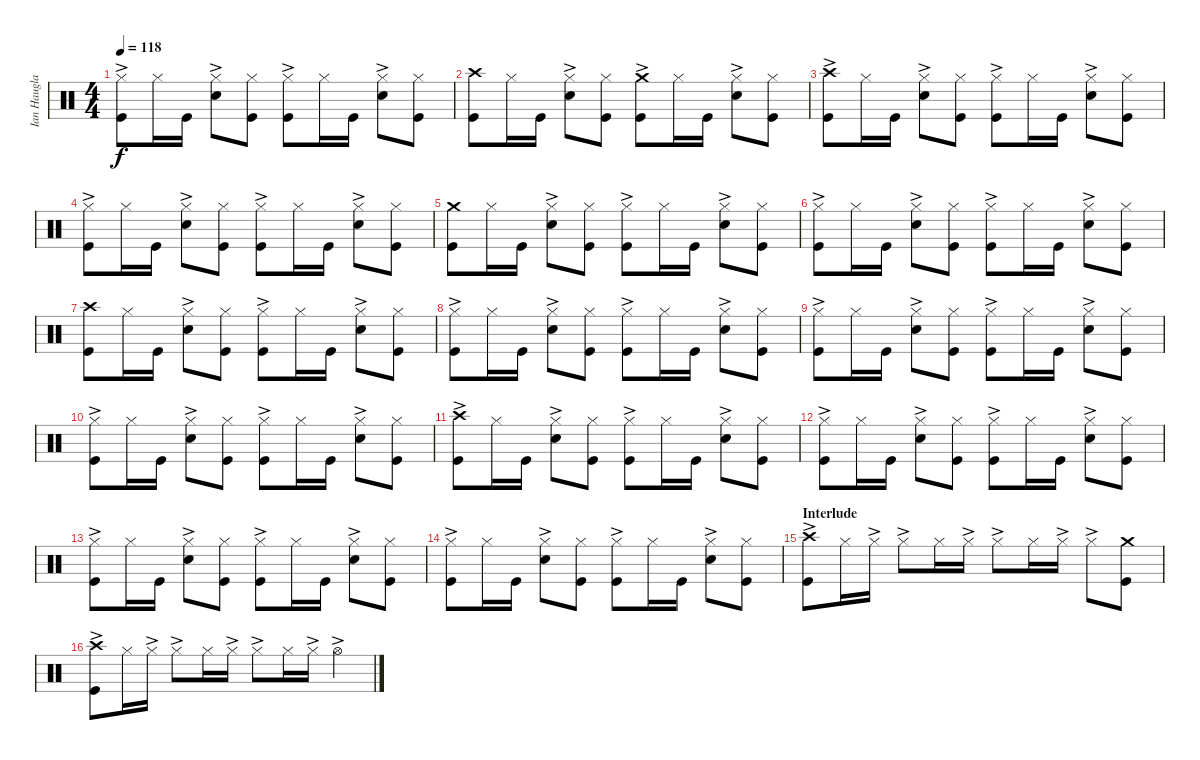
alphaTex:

\track ("Ian Haugland - Tama Imperialstar Kit - " "Ian Haugla") {instrument percussion}
\staff {score}
\articulation defaults
\ts (4 4)
\tempo 118
\clef neutral
\ks c
("Hi-Hat (closed)"{ac} "Kick (hit)").8{dy f} "Hi-Hat (closed)".16 "Kick (hit)".16 ("Hi-Hat (closed)"{ac} "Snare (hit) 2").8 ("Hi-Hat (closed)" "Kick (hit)").8 ("Hi-Hat (closed)"{ac} "Kick (hit)").8 "Hi-Hat (closed)".16 "Kick (hit)".16 ("Hi-Hat (closed)"{ac} "Snare (hit) 2").8 ("Hi-Hat (closed)" "Kick (hit)").8 |
("Crash high (hit)" "Kick (hit)").8 "Hi-Hat (closed)".16 "Kick (hit)".16 ("Hi-Hat (closed)"{ac} "Snare (hit) 2").8 ("Hi-Hat (closed)" "Kick (hit)").8 ("Crash medium (hit)"{ac} "Kick (hit)").8 "Hi-Hat (closed)".16 "Kick (hit)".16 ("Hi-Hat (closed)"{ac} "Snare (hit) 2").8 ("Hi-Hat (closed)" "Kick (hit)").8 |
("Crash high (hit)"{ac} "Kick (hit)").8 "Hi-Hat (closed)".16 "Kick (hit)".16 ("Hi-Hat (closed)"{ac} "Snare (hit) 2").8 ("Hi-Hat (closed)" "Kick (hit)").8 ("Hi-Hat (closed)"{ac} "Kick (hit)").8 "Hi-Hat (closed)".16 "Kick (hit)".16 ("Hi-Hat (closed)"{ac} "Snare (hit) 2").8 ("Hi-Hat (closed)" "Kick (hit)").8 |
("Hi-Hat (closed)"{ac} "Kick (hit)").8 "Hi-Hat (closed)".16 "Kick (hit)".16 ("Hi-Hat (closed)"{ac} "Snare (hit) 2").8 ("Hi-Hat (closed)" "Kick (hit)").8 ("Hi-Hat (closed)"{ac} "Kick (hit)").8 "Hi-Hat (closed)".16 "Kick (hit)".16 ("Hi-Hat (closed)"{ac} "Snare (hit) 2").8 ("Hi-Hat (closed)" "Kick (hit)").8 |
("Crash medium (hit)" "Kick (hit)").8 "Hi-Hat (closed)".16 "Kick (hit)".16 ("Hi-Hat (closed)"{ac} "Snare (hit) 2").8 ("Hi-Hat (closed)" "Kick (hit)").8 ("Hi-Hat (closed)"{ac} "Kick (hit)").8 "Hi-Hat (closed)".16 "Kick (hit)".16 ("Hi-Hat (closed)"{ac} "Snare (hit) 2").8 ("Hi-Hat (closed)" "Kick (hit)").8 |
("Hi-Hat (closed)"{ac} "Kick (hit)").8 "Hi-Hat (closed)".16 "Kick (hit)".16 ("Hi-Hat (closed)"{ac} "Snare (hit) 2").8 ("Hi-Hat (closed)" "Kick (hit)").8 ("Hi-Hat (closed)"{ac} "Kick (hit)").8 "Hi-Hat (closed)".16 "Kick (hit)".16 ("Hi-Hat (closed)"{ac} "Snare (hit) 2").8 ("Hi-Hat (closed)" "Kick (hit)").8 |
("Crash high (hit)" "Kick (hit)").8 "Hi-Hat (closed)".16 "Kick (hit)".16 ("Hi-Hat (closed)"{ac} "Snare (hit) 2").8 ("Hi-Hat (closed)" "Kick (hit)").8 ("Hi-Hat (closed)"{ac} "Kick (hit)").8 "Hi-Hat (closed)".16 "Kick (hit)".16 ("Hi-Hat (closed)"{ac} "Snare (hit) 2").8 ("Hi-Hat (closed)" "Kick (hit)").8 |
("Hi-Hat (closed)"{ac} "Kick (hit)").8 "Hi-Hat (closed)".16 "Kick (hit)".16 ("Hi-Hat (closed)"{ac} "Snare (hit) 2").8 ("Hi-Hat (closed)" "Kick (hit)").8 ("Hi-Hat (closed)"{ac} "Kick (hit)").8 "Hi-Hat (closed)".16 "Kick (hit)".16 ("Hi-Hat (closed)"{ac} "Snare (hit) 2").8 ("Hi-Hat (closed)" "Kick (hit)").8 |
("Hi-Hat (closed)"{ac} "Kick (hit)").8 "Hi-Hat (closed)".16 "Kick (hit)".16 ("Hi-Hat (closed)"{ac} "Snare (hit) 2").8 ("Hi-Hat (closed)" "Kick (hit)").8 ("Hi-Hat (closed)"{ac} "Kick (hit)").8 "Hi-Hat (closed)".16 "Kick (hit)".16 ("Hi-Hat (closed)"{ac} "Snare (hit) 2").8 ("Hi-Hat (closed)" "Kick (hit)").8 |
("Hi-Hat (closed)"{ac} "Kick (hit)").8 "Hi-Hat (closed)".16 "Kick (hit)".16 ("Hi-Hat (closed)"{ac} "Snare (hit) 2").8 ("Hi-Hat (closed)" "Kick (hit)").8 ("Hi-Hat (closed)"{ac} "Kick (hit)").8 "Hi-Hat (closed)".16 "Kick (hit)".16 ("Hi-Hat (closed)"{ac} "Snare (hit) 2").8 ("Hi-Hat (closed)" "Kick (hit)").8 |
("Crash high (hit)"{ac} "Kick (hit)").8 "Hi-Hat (closed)".16 "Kick (hit)".16 ("Hi-Hat (closed)"{ac} "Snare (hit) 2").8 ("Hi-Hat (closed)" "Kick (hit)").8 ("Hi-Hat (closed)"{ac} "Kick (hit)").8 "Hi-Hat (closed)".16 "Kick (hit)".16 ("Hi-Hat (closed)"{ac} "Snare (hit) 2").8 ("Hi-Hat (closed)" "Kick (hit)").8 |
("Hi-Hat (closed)"{ac} "Kick (hit)").8 "Hi-Hat (closed)".16 "Kick (hit)".16 ("Hi-Hat (closed)"{ac} "Snare (hit) 2").8 ("Hi-Hat (closed)" "Kick (hit)").8 ("Hi-Hat (closed)"{ac} "Kick (hit)").8 "Hi-Hat (closed)".16 "Kick (hit)".16 ("Hi-Hat (closed)"{ac} "Snare (hit) 2").8 ("Hi-Hat (closed)" "Kick (hit)").8 |
("Hi-Hat (closed)"{ac} "Kick (hit)").8 "Hi-Hat (closed)".16 "Kick (hit)".16 ("Hi-Hat (closed)"{ac} "Snare (hit) 2").8 ("Hi-Hat (closed)" "Kick (hit)").8 ("Hi-Hat (closed)"{ac} "Kick (hit)").8 "Hi-Hat (closed)".16 "Kick (hit)".16 ("Hi-Hat (closed)"{ac} "Snare (hit) 2").8 ("Hi-Hat (closed)" "Kick (hit)").8 |
("Hi-Hat (closed)"{ac} "Kick (hit)").8 "Hi-Hat (closed)".16 "Kick (hit)".16 ("Hi-Hat (closed)"{ac} "Snare (hit) 2").8 ("Hi-Hat (closed)" "Kick (hit)").8 ("Hi-Hat (closed)"{ac} "Kick (hit)").8 "Hi-Hat (closed)".16 "Kick (hit)".16 ("Hi-Hat (closed)"{ac} "Snare (hit) 2").8 ("Hi-Hat (closed)" "Kick (hit)").8 |
\section ("" "Interlude")
("Crash high (hit)"{ac} "Kick (hit)").8 "Hi-Hat (closed)".16 "Hi-Hat (closed)"{ac}.16 "Hi-Hat (closed)"{ac}.8 "Hi-Hat (closed)".16 "Hi-Hat (closed)"{ac}.16 "Hi-Hat (closed)"{ac}.8 "Hi-Hat (closed)".16 "Hi-Hat (closed)"{ac}.16 "Hi-Hat (closed)"{ac}.8 ("Crash medium (hit)" "Kick (hit)").8 |
("Crash high (hit)"{ac} "Kick (hit)").8 "Hi-Hat (closed)".16 "Hi-Hat (closed)"{ac}.16 "Hi-Hat (closed)"{ac}.8 "Hi-Hat (closed)".16 "Hi-Hat (closed)"{ac}.16 "Hi-Hat (closed)"{ac}.8 "Hi-Hat (closed)".16 "Hi-Hat (closed)"{ac}.16 "Hi-Hat (open)"{ac}.4
